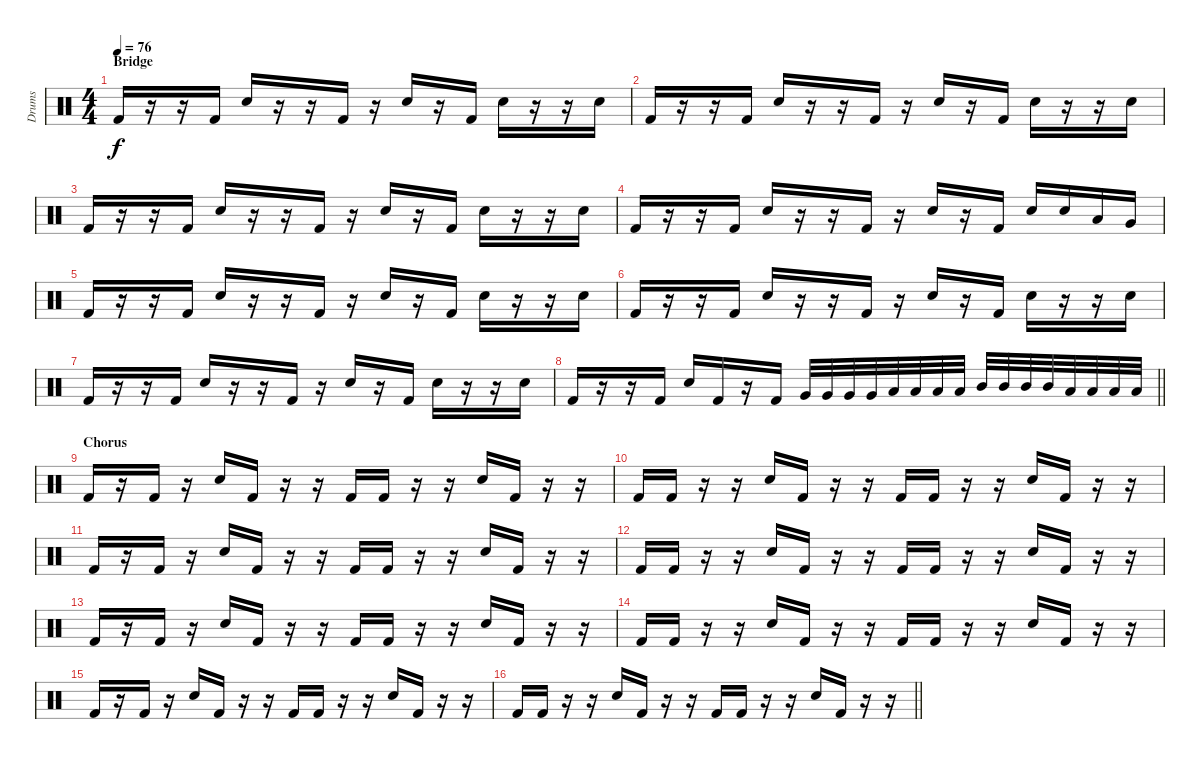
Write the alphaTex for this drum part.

\track ("Drums" "Drums") {instrument percussion}
\staff {score}
\articulation defaults
\ts (4 4)
\section ("" "Bridge")
\tempo 76
\clef neutral
\ks c "Kick (hit) 2".16{dy f}
r.16 r.16 "Kick (hit) 2".16 "Electric Snare (hit)".16 r.16 r.16 "Kick (hit) 2".16 r.16 "Electric Snare (hit)".16 r.16 "Kick (hit) 2".16 "Electric Snare (hit)".16 r.16 r.16 "Electric Snare (hit)".16 |
"Kick (hit) 2".16 r.16 r.16 "Kick (hit) 2".16 "Electric Snare (hit)".16 r.16 r.16 "Kick (hit) 2".16 r.16 "Electric Snare (hit)".16 r.16 "Kick (hit) 2".16 "Electric Snare (hit)".16 r.16 r.16 "Electric Snare (hit)".16 |
"Kick (hit) 2".16 r.16 r.16 "Kick (hit) 2".16 "Electric Snare (hit)".16 r.16 r.16 "Kick (hit) 2".16 r.16 "Electric Snare (hit)".16 r.16 "Kick (hit) 2".16 "Electric Snare (hit)".16 r.16 r.16 "Electric Snare (hit)".16 |
"Kick (hit) 2".16 r.16 r.16 "Kick (hit) 2".16 "Electric Snare (hit)".16 r.16 r.16 "Kick (hit) 2".16 r.16 "Electric Snare (hit)".16 r.16 "Kick (hit) 2".16 "Electric Snare (hit)".16 "Electric Snare (hit)".16 "Low Tom (hit)".16 "Very Low Tom (hit)".16 |
"Kick (hit) 2".16 r.16 r.16 "Kick (hit) 2".16 "Electric Snare (hit)".16 r.16 r.16 "Kick (hit) 2".16 r.16 "Electric Snare (hit)".16 r.16 "Kick (hit) 2".16 "Electric Snare (hit)".16 r.16 r.16 "Electric Snare (hit)".16 |
"Kick (hit) 2".16 r.16 r.16 "Kick (hit) 2".16 "Electric Snare (hit)".16 r.16 r.16 "Kick (hit) 2".16 r.16 "Electric Snare (hit)".16 r.16 "Kick (hit) 2".16 "Electric Snare (hit)".16 r.16 r.16 "Electric Snare (hit)".16 |
"Kick (hit) 2".16 r.16 r.16 "Kick (hit) 2".16 "Electric Snare (hit)".16 r.16 r.16 "Kick (hit) 2".16 r.16 "Electric Snare (hit)".16 r.16 "Kick (hit) 2".16 "Electric Snare (hit)".16 r.16 r.16 "Electric Snare (hit)".16 |
\barLineRight lightlight "Kick (hit) 2".16
r.16 r.16 "Kick (hit) 2".16 "Electric Snare (hit)".16 "Kick (hit) 2".16 r.16 "Kick (hit) 2".16 "Very Low Tom (hit)".32 "Very Low Tom (hit)".32 "Very Low Tom (hit)".32 "Very Low Tom (hit)".32 "Low Tom (hit)".32 "Low Tom (hit)".32 "Low Tom (hit)".32 "Low Tom (hit)".32 "Mid Tom (hit)".32 "Mid Tom (hit)".32 "Mid Tom (hit)".32 "Mid Tom (hit)".32 "Low Tom (hit)".32 "Low Tom (hit)".32 "Low Tom (hit)".32 "Low Tom (hit)".32 |
\section ("" "Chorus")
"Kick (hit) 2".16 r.16 "Kick (hit) 2".16 r.16 "Electric Snare (hit)".16 "Kick (hit) 2".16 r.16 r.16 "Kick (hit) 2".16 "Kick (hit) 2".16 r.16 r.16 "Electric Snare (hit)".16 "Kick (hit) 2".16 r.16 r.16 |
"Kick (hit) 2".16 "Kick (hit) 2".16 r.16 r.16 "Electric Snare (hit)".16 "Kick (hit) 2".16 r.16 r.16 "Kick (hit) 2".16 "Kick (hit) 2".16 r.16 r.16 "Electric Snare (hit)".16 "Kick (hit) 2".16 r.16 r.16 |
"Kick (hit) 2".16 r.16 "Kick (hit) 2".16 r.16 "Electric Snare (hit)".16 "Kick (hit) 2".16 r.16 r.16 "Kick (hit) 2".16 "Kick (hit) 2".16 r.16 r.16 "Electric Snare (hit)".16 "Kick (hit) 2".16 r.16 r.16 |
"Kick (hit) 2".16 "Kick (hit) 2".16 r.16 r.16 "Electric Snare (hit)".16 "Kick (hit) 2".16 r.16 r.16 "Kick (hit) 2".16 "Kick (hit) 2".16 r.16 r.16 "Electric Snare (hit)".16 "Kick (hit) 2".16 r.16 r.16 |
"Kick (hit) 2".16 r.16 "Kick (hit) 2".16 r.16 "Electric Snare (hit)".16 "Kick (hit) 2".16 r.16 r.16 "Kick (hit) 2".16 "Kick (hit) 2".16 r.16 r.16 "Electric Snare (hit)".16 "Kick (hit) 2".16 r.16 r.16 |
"Kick (hit) 2".16 "Kick (hit) 2".16 r.16 r.16 "Electric Snare (hit)".16 "Kick (hit) 2".16 r.16 r.16 "Kick (hit) 2".16 "Kick (hit) 2".16 r.16 r.16 "Electric Snare (hit)".16 "Kick (hit) 2".16 r.16 r.16 |
"Kick (hit) 2".16 r.16 "Kick (hit) 2".16 r.16 "Electric Snare (hit)".16 "Kick (hit) 2".16 r.16 r.16 "Kick (hit) 2".16 "Kick (hit) 2".16 r.16 r.16 "Electric Snare (hit)".16 "Kick (hit) 2".16 r.16 r.16 |
\barLineRight lightlight "Kick (hit) 2".16 "Kick (hit) 2".16
r.16 r.16 "Electric Snare (hit)".16 "Kick (hit) 2".16 r.16 r.16 "Kick (hit) 2".16 "Kick (hit) 2".16 r.16 r.16 "Electric Snare (hit)".16 "Kick (hit) 2".16 r.16 r.16
